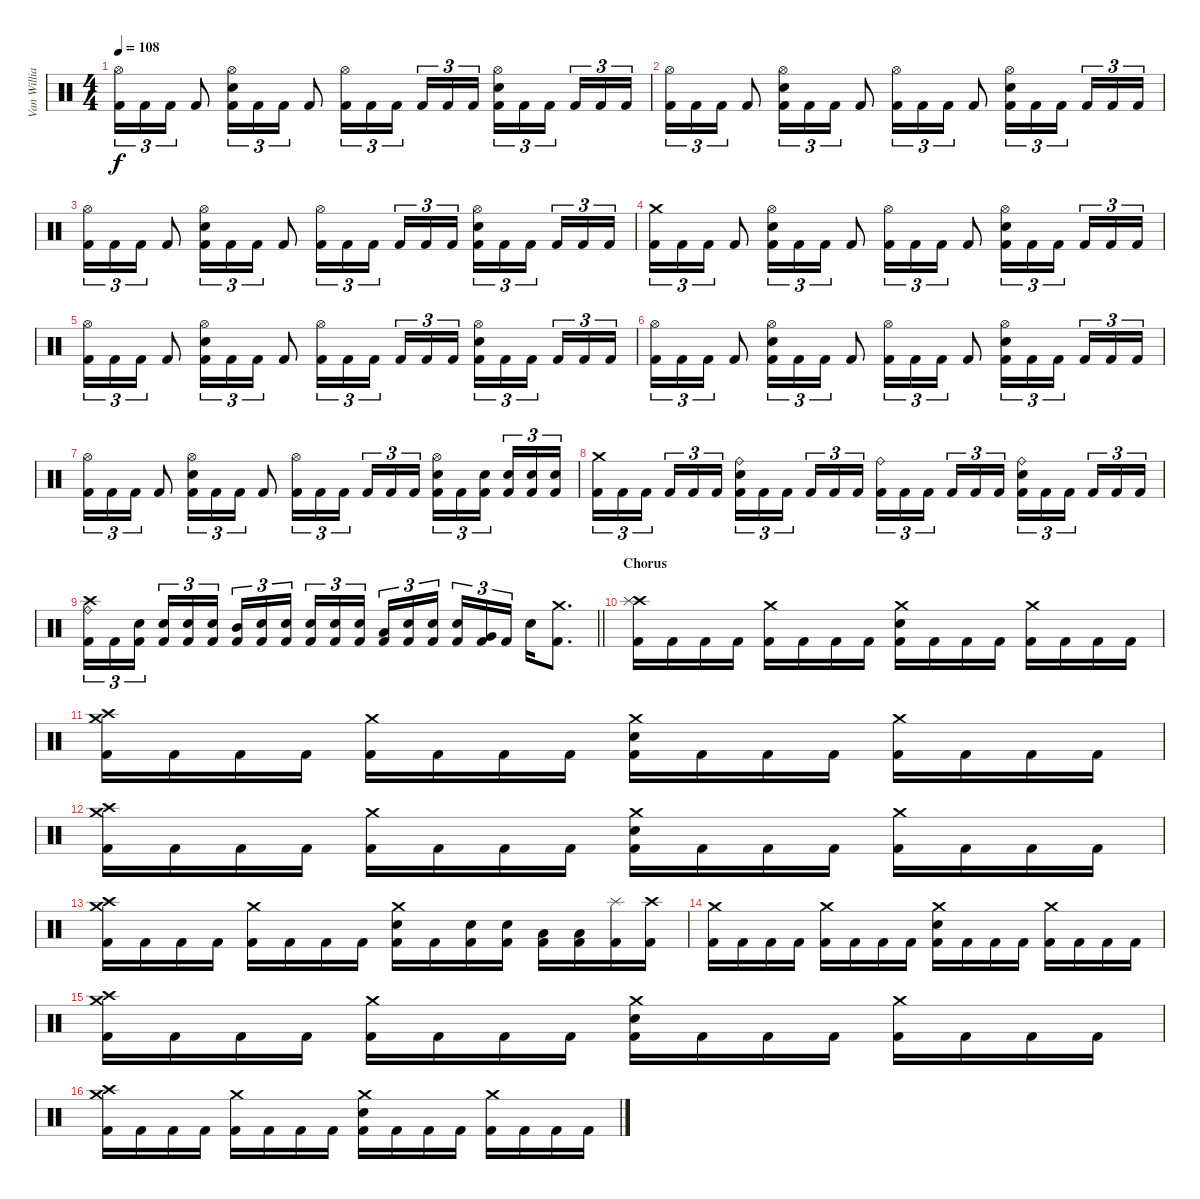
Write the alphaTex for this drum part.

\track ("Van Williams" "Van Willia") {instrument percussion}
\staff {score}
\articulation defaults
\ts (4 4)
\tempo 108
\clef neutral
\ks c
("Hi-Hat (open)" "Kick (hit) 2").16{tu (3 2) dy f} "Kick (hit) 2".16{tu (3 2)} "Kick (hit) 2".16{tu (3 2)} "Kick (hit) 2".8 ("Hi-Hat (open)" "Snare (hit) 2" "Kick (hit) 2").16{tu (3 2)} "Kick (hit) 2".16{tu (3 2)} "Kick (hit) 2".16{tu (3 2)} "Kick (hit) 2".8 ("Hi-Hat (open)" "Kick (hit) 2").16{tu (3 2)} "Kick (hit) 2".16{tu (3 2)} "Kick (hit) 2".16{tu (3 2) beam splitsecondary} "Kick (hit) 2".16{tu (3 2)} "Kick (hit) 2".16{tu (3 2)} "Kick (hit) 2".16{tu (3 2)} ("Hi-Hat (open)" "Snare (hit) 2" "Kick (hit) 2").16{tu (3 2)} "Kick (hit) 2".16{tu (3 2)} "Kick (hit) 2".16{tu (3 2) beam splitsecondary} "Kick (hit) 2".16{tu (3 2)} "Kick (hit) 2".16{tu (3 2)} "Kick (hit) 2".16{tu (3 2)} |
("Hi-Hat (open)" "Kick (hit) 2").16{tu (3 2)} "Kick (hit) 2".16{tu (3 2)} "Kick (hit) 2".16{tu (3 2)} "Kick (hit) 2".8 ("Hi-Hat (open)" "Snare (hit) 2" "Kick (hit) 2").16{tu (3 2)} "Kick (hit) 2".16{tu (3 2)} "Kick (hit) 2".16{tu (3 2)} "Kick (hit) 2".8 ("Hi-Hat (open)" "Kick (hit) 2").16{tu (3 2)} "Kick (hit) 2".16{tu (3 2)} "Kick (hit) 2".16{tu (3 2)} "Kick (hit) 2".8 ("Hi-Hat (open)" "Snare (hit) 2" "Kick (hit) 2").16{tu (3 2)} "Kick (hit) 2".16{tu (3 2)} "Kick (hit) 2".16{tu (3 2) beam splitsecondary} "Kick (hit) 2".16{tu (3 2)} "Kick (hit) 2".16{tu (3 2)} "Kick (hit) 2".16{tu (3 2)} |
("Hi-Hat (open)" "Kick (hit) 2").16{tu (3 2)} "Kick (hit) 2".16{tu (3 2)} "Kick (hit) 2".16{tu (3 2)} "Kick (hit) 2".8 ("Hi-Hat (open)" "Snare (hit) 2" "Kick (hit) 2").16{tu (3 2)} "Kick (hit) 2".16{tu (3 2)} "Kick (hit) 2".16{tu (3 2)} "Kick (hit) 2".8 ("Hi-Hat (open)" "Kick (hit) 2").16{tu (3 2)} "Kick (hit) 2".16{tu (3 2)} "Kick (hit) 2".16{tu (3 2) beam splitsecondary} "Kick (hit) 2".16{tu (3 2)} "Kick (hit) 2".16{tu (3 2)} "Kick (hit) 2".16{tu (3 2)} ("Hi-Hat (open)" "Snare (hit) 2" "Kick (hit) 2").16{tu (3 2)} "Kick (hit) 2".16{tu (3 2)} "Kick (hit) 2".16{tu (3 2) beam splitsecondary} "Kick (hit) 2".16{tu (3 2)} "Kick (hit) 2".16{tu (3 2)} "Kick (hit) 2".16{tu (3 2)} |
("Crash medium (hit)" "Kick (hit) 2").16{tu (3 2)} "Kick (hit) 2".16{tu (3 2)} "Kick (hit) 2".16{tu (3 2)} "Kick (hit) 2".8 ("Hi-Hat (open)" "Snare (hit) 2" "Kick (hit) 2").16{tu (3 2)} "Kick (hit) 2".16{tu (3 2)} "Kick (hit) 2".16{tu (3 2)} "Kick (hit) 2".8 ("Hi-Hat (open)" "Kick (hit) 2").16{tu (3 2)} "Kick (hit) 2".16{tu (3 2)} "Kick (hit) 2".16{tu (3 2)} "Kick (hit) 2".8 ("Hi-Hat (open)" "Snare (hit) 2" "Kick (hit) 2").16{tu (3 2)} "Kick (hit) 2".16{tu (3 2)} "Kick (hit) 2".16{tu (3 2) beam splitsecondary} "Kick (hit) 2".16{tu (3 2)} "Kick (hit) 2".16{tu (3 2)} "Kick (hit) 2".16{tu (3 2)} |
("Hi-Hat (open)" "Kick (hit) 2").16{tu (3 2)} "Kick (hit) 2".16{tu (3 2)} "Kick (hit) 2".16{tu (3 2)} "Kick (hit) 2".8 ("Hi-Hat (open)" "Snare (hit) 2" "Kick (hit) 2").16{tu (3 2)} "Kick (hit) 2".16{tu (3 2)} "Kick (hit) 2".16{tu (3 2)} "Kick (hit) 2".8 ("Hi-Hat (open)" "Kick (hit) 2").16{tu (3 2)} "Kick (hit) 2".16{tu (3 2)} "Kick (hit) 2".16{tu (3 2) beam splitsecondary} "Kick (hit) 2".16{tu (3 2)} "Kick (hit) 2".16{tu (3 2)} "Kick (hit) 2".16{tu (3 2)} ("Hi-Hat (open)" "Snare (hit) 2" "Kick (hit) 2").16{tu (3 2)} "Kick (hit) 2".16{tu (3 2)} "Kick (hit) 2".16{tu (3 2) beam splitsecondary} "Kick (hit) 2".16{tu (3 2)} "Kick (hit) 2".16{tu (3 2)} "Kick (hit) 2".16{tu (3 2)} |
("Hi-Hat (open)" "Kick (hit) 2").16{tu (3 2)} "Kick (hit) 2".16{tu (3 2)} "Kick (hit) 2".16{tu (3 2)} "Kick (hit) 2".8 ("Hi-Hat (open)" "Snare (hit) 2" "Kick (hit) 2").16{tu (3 2)} "Kick (hit) 2".16{tu (3 2)} "Kick (hit) 2".16{tu (3 2)} "Kick (hit) 2".8 ("Hi-Hat (open)" "Kick (hit) 2").16{tu (3 2)} "Kick (hit) 2".16{tu (3 2)} "Kick (hit) 2".16{tu (3 2)} "Kick (hit) 2".8 ("Hi-Hat (open)" "Snare (hit) 2" "Kick (hit) 2").16{tu (3 2)} "Kick (hit) 2".16{tu (3 2)} "Kick (hit) 2".16{tu (3 2) beam splitsecondary} "Kick (hit) 2".16{tu (3 2)} "Kick (hit) 2".16{tu (3 2)} "Kick (hit) 2".16{tu (3 2)} |
("Hi-Hat (open)" "Kick (hit) 2").16{tu (3 2)} "Kick (hit) 2".16{tu (3 2)} "Kick (hit) 2".16{tu (3 2)} "Kick (hit) 2".8 ("Hi-Hat (open)" "Snare (hit) 2" "Kick (hit) 2").16{tu (3 2)} "Kick (hit) 2".16{tu (3 2)} "Kick (hit) 2".16{tu (3 2)} "Kick (hit) 2".8 ("Hi-Hat (open)" "Kick (hit) 2").16{tu (3 2)} "Kick (hit) 2".16{tu (3 2)} "Kick (hit) 2".16{tu (3 2) beam splitsecondary} "Kick (hit) 2".16{tu (3 2)} "Kick (hit) 2".16{tu (3 2)} "Kick (hit) 2".16{tu (3 2)} ("Hi-Hat (open)" "Snare (hit) 2" "Kick (hit) 2").16{tu (3 2)} "Kick (hit) 2".16{tu (3 2)} ("Snare (hit) 2" "Kick (hit) 2").16{tu (3 2) beam splitsecondary} ("Snare (hit) 2" "Kick (hit) 2").16{tu (3 2)} ("Snare (hit) 2" "Kick (hit) 2").16{tu (3 2)} ("Snare (hit) 2" "Kick (hit) 2").16{tu (3 2)} |
("Crash medium (hit)" "Kick (hit) 2").16{tu (3 2)} "Kick (hit) 2".16{tu (3 2)} "Kick (hit) 2".16{tu (3 2) beam splitsecondary} "Kick (hit) 2".16{tu (3 2)} "Kick (hit) 2".16{tu (3 2)} "Kick (hit) 2".16{tu (3 2)} ("Ride (bell)" "Snare (hit) 2" "Kick (hit) 2").16{tu (3 2)} "Kick (hit) 2".16{tu (3 2)} "Kick (hit) 2".16{tu (3 2) beam splitsecondary} "Kick (hit) 2".16{tu (3 2)} "Kick (hit) 2".16{tu (3 2)} "Kick (hit) 2".16{tu (3 2)} ("Ride (bell)" "Kick (hit) 2").16{tu (3 2)} "Kick (hit) 2".16{tu (3 2)} "Kick (hit) 2".16{tu (3 2) beam splitsecondary} "Kick (hit) 2".16{tu (3 2)} "Kick (hit) 2".16{tu (3 2)} "Kick (hit) 2".16{tu (3 2)} ("Ride (bell)" "Snare (hit) 2" "Kick (hit) 2").16{tu (3 2)} "Kick (hit) 2".16{tu (3 2)} "Kick (hit) 2".16{tu (3 2) beam splitsecondary} "Kick (hit) 2".16{tu (3 2)} "Kick (hit) 2".16{tu (3 2)} "Kick (hit) 2".16{tu (3 2)} |
\barLineRight lightlight
("Crash high (hit)" "Ride (bell)" "Kick (hit) 2").16{tu (3 2)} "Kick (hit) 2".16{tu (3 2)} ("Snare (hit) 2" "Kick (hit) 2").16{tu (3 2) beam splitsecondary} ("Snare (hit) 2" "Kick (hit) 2").16{tu (3 2)} ("Snare (hit) 2" "Kick (hit) 2").16{tu (3 2)} ("Snare (hit) 2" "Kick (hit) 2").16{tu (3 2)} ("Mid Tom (hit)" "Kick (hit) 2").16{tu (3 2)} ("Snare (hit) 2" "Kick (hit) 2").16{tu (3 2)} ("Snare (hit) 2" "Kick (hit) 2").16{tu (3 2) beam splitsecondary} ("Snare (hit) 2" "Kick (hit) 2").16{tu (3 2)} ("Snare (hit) 2" "Kick (hit) 2").16{tu (3 2)} ("Snare (hit) 2" "Kick (hit) 2").16{tu (3 2)} ("Low Tom (hit)" "Kick (hit) 2").16{tu (3 2)} ("Snare (hit) 2" "Kick (hit) 2").16{tu (3 2)} ("Snare (hit) 2" "Kick (hit) 2").16{tu (3 2) beam splitsecondary} ("Snare (hit) 2" "Kick (hit) 2").16{tu (3 2)} ("Very Low Tom (hit)" "Kick (hit) 2").16{tu (3 2)} "Kick (hit) 2".16{tu (3 2)} "Snare (hit) 2".16 ("Crash medium (hit)" "Kick (hit) 2").8{d} |
\section ("" "Chorus")
("Crash high (hit)" "Splash (hit)" "Kick (hit) 2").16 "Kick (hit) 2".16 "Kick (hit) 2".16 "Kick (hit) 2".16 ("Crash medium (hit)" "Kick (hit) 2").16 "Kick (hit) 2".16 "Kick (hit) 2".16 "Kick (hit) 2".16 ("Crash medium (hit)" "Snare (hit) 2" "Kick (hit) 2").16 "Kick (hit) 2".16 "Kick (hit) 2".16 "Kick (hit) 2".16 ("Crash medium (hit)" "Kick (hit) 2").16 "Kick (hit) 2".16 "Kick (hit) 2".16 "Kick (hit) 2".16 |
("Crash high (hit)" "Crash medium (hit)" "Kick (hit) 2").16 "Kick (hit) 2".16 "Kick (hit) 2".16 "Kick (hit) 2".16 ("Crash medium (hit)" "Kick (hit) 2").16 "Kick (hit) 2".16 "Kick (hit) 2".16 "Kick (hit) 2".16 ("Crash medium (hit)" "Snare (hit) 2" "Kick (hit) 2").16 "Kick (hit) 2".16 "Kick (hit) 2".16 "Kick (hit) 2".16 ("Crash medium (hit)" "Kick (hit) 2").16 "Kick (hit) 2".16 "Kick (hit) 2".16 "Kick (hit) 2".16 |
("Crash high (hit)" "Crash medium (hit)" "Kick (hit) 2").16 "Kick (hit) 2".16 "Kick (hit) 2".16 "Kick (hit) 2".16 ("Crash medium (hit)" "Kick (hit) 2").16 "Kick (hit) 2".16 "Kick (hit) 2".16 "Kick (hit) 2".16 ("Crash medium (hit)" "Snare (hit) 2" "Kick (hit) 2").16 "Kick (hit) 2".16 "Kick (hit) 2".16 "Kick (hit) 2".16 ("Crash medium (hit)" "Kick (hit) 2").16 "Kick (hit) 2".16 "Kick (hit) 2".16 "Kick (hit) 2".16 |
("Crash high (hit)" "Crash medium (hit)" "Kick (hit) 2").16 "Kick (hit) 2".16 "Kick (hit) 2".16 "Kick (hit) 2".16 ("Crash medium (hit)" "Kick (hit) 2").16 "Kick (hit) 2".16 "Kick (hit) 2".16 "Kick (hit) 2".16 ("Crash medium (hit)" "Snare (hit) 2" "Kick (hit) 2").16 "Kick (hit) 2".16 ("Snare (hit) 2" "Kick (hit) 2").16 ("Snare (hit) 2" "Kick (hit) 2").16 ("Low Tom (hit)" "Kick (hit) 2").16 ("Low Tom (hit)" "Kick (hit) 2").16 ("Splash (hit)" "Kick (hit) 2").16 ("Crash high (hit)" "Kick (hit) 2").16 |
("Crash medium (hit)" "Kick (hit) 2").16 "Kick (hit) 2".16 "Kick (hit) 2".16 "Kick (hit) 2".16 ("Crash medium (hit)" "Kick (hit) 2").16 "Kick (hit) 2".16 "Kick (hit) 2".16 "Kick (hit) 2".16 ("Crash medium (hit)" "Snare (hit) 2" "Kick (hit) 2").16 "Kick (hit) 2".16 "Kick (hit) 2".16 "Kick (hit) 2".16 ("Crash medium (hit)" "Kick (hit) 2").16 "Kick (hit) 2".16 "Kick (hit) 2".16 "Kick (hit) 2".16 |
("Crash high (hit)" "Crash medium (hit)" "Kick (hit) 2").16 "Kick (hit) 2".16 "Kick (hit) 2".16 "Kick (hit) 2".16 ("Crash medium (hit)" "Kick (hit) 2").16 "Kick (hit) 2".16 "Kick (hit) 2".16 "Kick (hit) 2".16 ("Crash medium (hit)" "Snare (hit) 2" "Kick (hit) 2").16 "Kick (hit) 2".16 "Kick (hit) 2".16 "Kick (hit) 2".16 ("Crash medium (hit)" "Kick (hit) 2").16 "Kick (hit) 2".16 "Kick (hit) 2".16 "Kick (hit) 2".16 |
("Crash high (hit)" "Crash medium (hit)" "Kick (hit) 2").16 "Kick (hit) 2".16 "Kick (hit) 2".16 "Kick (hit) 2".16 ("Crash medium (hit)" "Kick (hit) 2").16 "Kick (hit) 2".16 "Kick (hit) 2".16 "Kick (hit) 2".16 ("Crash medium (hit)" "Snare (hit) 2" "Kick (hit) 2").16 "Kick (hit) 2".16 "Kick (hit) 2".16 "Kick (hit) 2".16 ("Crash medium (hit)" "Kick (hit) 2").16 "Kick (hit) 2".16 "Kick (hit) 2".16 "Kick (hit) 2".16
